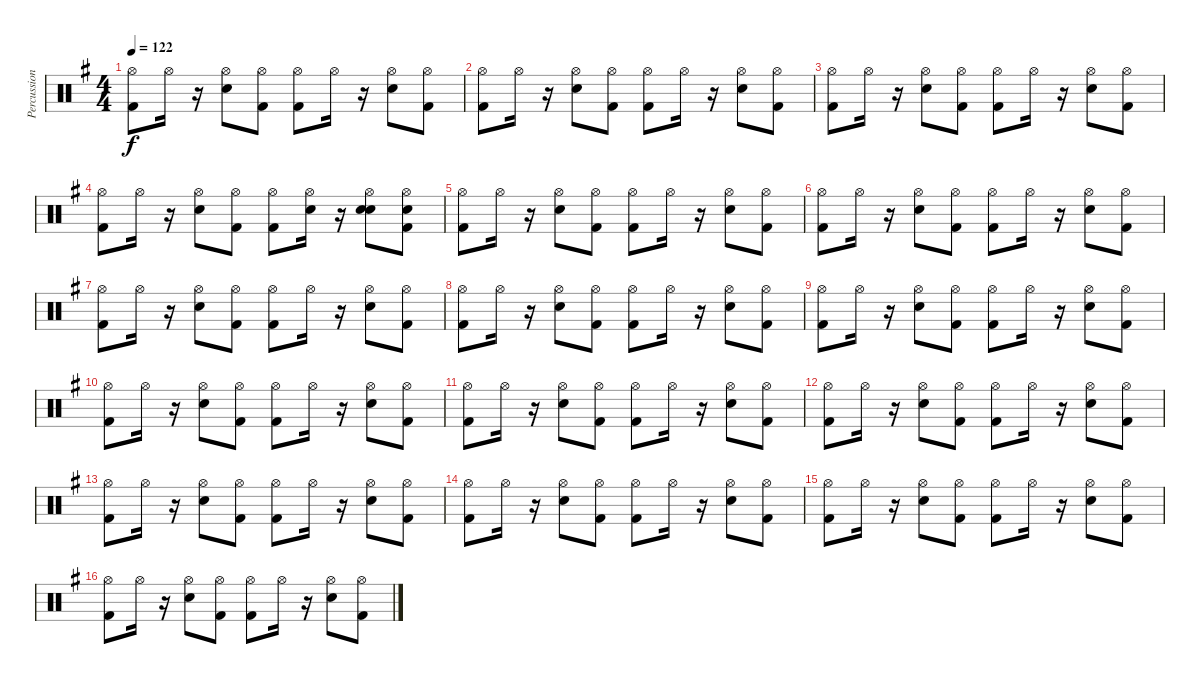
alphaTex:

\track ("Percussion" "Percussion") {instrument percussion}
\staff {score}
\articulation defaults
\ts (4 4)
\tempo 122
\clef neutral
\ks g
("Kick (hit) 2" "Hi-Hat (open)").8{dy f} "Hi-Hat (open)".16 r.16 ("Electric Snare (hit)" "Hi-Hat (open)").8 ("Kick (hit) 2" "Hi-Hat (open)").8 ("Kick (hit) 2" "Hi-Hat (open)").8 "Hi-Hat (open)".16 r.16 ("Electric Snare (hit)" "Hi-Hat (open)").8 ("Kick (hit) 2" "Hi-Hat (open)").8 |
("Kick (hit) 2" "Hi-Hat (open)").8 "Hi-Hat (open)".16 r.16 ("Electric Snare (hit)" "Hi-Hat (open)").8 ("Kick (hit) 2" "Hi-Hat (open)").8 ("Kick (hit) 2" "Hi-Hat (open)").8 "Hi-Hat (open)".16 r.16 ("Electric Snare (hit)" "Hi-Hat (open)").8 ("Kick (hit) 2" "Hi-Hat (open)").8 |
("Kick (hit) 2" "Hi-Hat (open)").8 "Hi-Hat (open)".16 r.16 ("Electric Snare (hit)" "Hi-Hat (open)").8 ("Kick (hit) 2" "Hi-Hat (open)").8 ("Kick (hit) 2" "Hi-Hat (open)").8 "Hi-Hat (open)".16 r.16 ("Electric Snare (hit)" "Hi-Hat (open)").8 ("Kick (hit) 2" "Hi-Hat (open)").8 |
("Kick (hit) 2" "Hi-Hat (open)").8 "Hi-Hat (open)".16 r.16 ("Electric Snare (hit)" "Hi-Hat (open)").8 ("Kick (hit) 2" "Hi-Hat (open)").8 ("Kick (hit) 2" "Hi-Hat (open)").8 ("Hi-Hat (open)" "Electric Snare (hit)").16 r.16 ("Electric Snare (hit)" "Hi-Hat (open)" "Electric Snare (hit)").8 ("Kick (hit) 2" "Hi-Hat (open)" "Electric Snare (hit)").8 |
("Hi-Hat (open)" "Kick (hit) 2").8 "Hi-Hat (open)".16 r.16 ("Electric Snare (hit)" "Hi-Hat (open)").8 ("Kick (hit) 2" "Hi-Hat (open)").8 ("Kick (hit) 2" "Hi-Hat (open)").8 "Hi-Hat (open)".16 r.16 ("Electric Snare (hit)" "Hi-Hat (open)").8 ("Kick (hit) 2" "Hi-Hat (open)").8 |
("Kick (hit) 2" "Hi-Hat (open)").8 "Hi-Hat (open)".16 r.16 ("Electric Snare (hit)" "Hi-Hat (open)").8 ("Kick (hit) 2" "Hi-Hat (open)").8 ("Kick (hit) 2" "Hi-Hat (open)").8 "Hi-Hat (open)".16 r.16 ("Electric Snare (hit)" "Hi-Hat (open)").8 ("Kick (hit) 2" "Hi-Hat (open)").8 |
("Hi-Hat (open)" "Kick (hit) 2").8 "Hi-Hat (open)".16 r.16 ("Electric Snare (hit)" "Hi-Hat (open)").8 ("Kick (hit) 2" "Hi-Hat (open)").8 ("Kick (hit) 2" "Hi-Hat (open)").8 "Hi-Hat (open)".16 r.16 ("Electric Snare (hit)" "Hi-Hat (open)").8 ("Kick (hit) 2" "Hi-Hat (open)").8 |
("Kick (hit) 2" "Hi-Hat (open)").8 "Hi-Hat (open)".16 r.16 ("Electric Snare (hit)" "Hi-Hat (open)").8 ("Kick (hit) 2" "Hi-Hat (open)").8 ("Kick (hit) 2" "Hi-Hat (open)").8 "Hi-Hat (open)".16 r.16 ("Electric Snare (hit)" "Hi-Hat (open)").8 ("Kick (hit) 2" "Hi-Hat (open)").8 |
("Kick (hit) 2" "Hi-Hat (open)").8 "Hi-Hat (open)".16 r.16 ("Electric Snare (hit)" "Hi-Hat (open)").8 ("Kick (hit) 2" "Hi-Hat (open)").8 ("Kick (hit) 2" "Hi-Hat (open)").8 "Hi-Hat (open)".16 r.16 ("Electric Snare (hit)" "Hi-Hat (open)").8 ("Kick (hit) 2" "Hi-Hat (open)").8 |
("Kick (hit) 2" "Hi-Hat (open)").8 "Hi-Hat (open)".16 r.16 ("Electric Snare (hit)" "Hi-Hat (open)").8 ("Kick (hit) 2" "Hi-Hat (open)").8 ("Kick (hit) 2" "Hi-Hat (open)").8 "Hi-Hat (open)".16 r.16 ("Electric Snare (hit)" "Hi-Hat (open)").8 ("Kick (hit) 2" "Hi-Hat (open)").8 |
("Kick (hit) 2" "Hi-Hat (open)").8 "Hi-Hat (open)".16 r.16 ("Electric Snare (hit)" "Hi-Hat (open)").8 ("Kick (hit) 2" "Hi-Hat (open)").8 ("Kick (hit) 2" "Hi-Hat (open)").8 "Hi-Hat (open)".16 r.16 ("Electric Snare (hit)" "Hi-Hat (open)").8 ("Kick (hit) 2" "Hi-Hat (open)").8 |
("Kick (hit) 2" "Hi-Hat (open)").8 "Hi-Hat (open)".16 r.16 ("Electric Snare (hit)" "Hi-Hat (open)").8 ("Kick (hit) 2" "Hi-Hat (open)").8 ("Kick (hit) 2" "Hi-Hat (open)").8 "Hi-Hat (open)".16 r.16 ("Electric Snare (hit)" "Hi-Hat (open)").8 ("Kick (hit) 2" "Hi-Hat (open)").8 |
("Kick (hit) 2" "Hi-Hat (open)").8 "Hi-Hat (open)".16 r.16 ("Electric Snare (hit)" "Hi-Hat (open)").8 ("Kick (hit) 2" "Hi-Hat (open)").8 ("Kick (hit) 2" "Hi-Hat (open)").8 "Hi-Hat (open)".16 r.16 ("Electric Snare (hit)" "Hi-Hat (open)").8 ("Kick (hit) 2" "Hi-Hat (open)").8 |
("Kick (hit) 2" "Hi-Hat (open)").8 "Hi-Hat (open)".16 r.16 ("Electric Snare (hit)" "Hi-Hat (open)").8 ("Kick (hit) 2" "Hi-Hat (open)").8 ("Kick (hit) 2" "Hi-Hat (open)").8 "Hi-Hat (open)".16 r.16 ("Electric Snare (hit)" "Hi-Hat (open)").8 ("Kick (hit) 2" "Hi-Hat (open)").8 |
("Kick (hit) 2" "Hi-Hat (open)").8 "Hi-Hat (open)".16 r.16 ("Electric Snare (hit)" "Hi-Hat (open)").8 ("Kick (hit) 2" "Hi-Hat (open)").8 ("Kick (hit) 2" "Hi-Hat (open)").8 "Hi-Hat (open)".16 r.16 ("Electric Snare (hit)" "Hi-Hat (open)").8 ("Kick (hit) 2" "Hi-Hat (open)").8 |
("Kick (hit) 2" "Hi-Hat (open)").8 "Hi-Hat (open)".16 r.16 ("Electric Snare (hit)" "Hi-Hat (open)").8 ("Kick (hit) 2" "Hi-Hat (open)").8 ("Kick (hit) 2" "Hi-Hat (open)").8 "Hi-Hat (open)".16 r.16 ("Electric Snare (hit)" "Hi-Hat (open)").8 ("Kick (hit) 2" "Hi-Hat (open)").8
